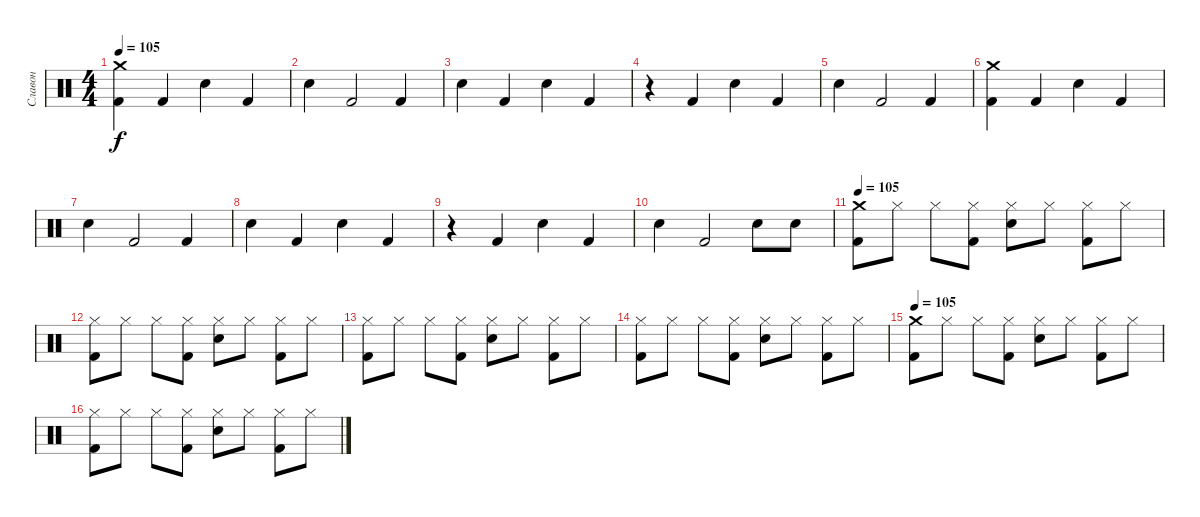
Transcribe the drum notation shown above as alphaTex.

\track ("Славон" "Славон") {instrument percussion}
\staff {score}
\articulation defaults
\ts (4 4)
\tempo 105
\tempo 132
\tempo 105
\clef neutral
\ks c
("Crash medium (hit)" "Kick (hit) 2").4{dy f} "Kick (hit) 2".4 "Snare (hit) 2".4 "Kick (hit) 2".4 |
"Snare (hit) 2".4 "Kick (hit) 2".2 "Kick (hit) 2".4 |
"Snare (hit) 2".4 "Kick (hit) 2".4 "Snare (hit) 2".4 "Kick (hit) 2".4 |
r.4 "Kick (hit) 2".4 "Snare (hit) 2".4 "Kick (hit) 2".4 |
"Snare (hit) 2".4 "Kick (hit) 2".2 "Kick (hit) 2".4 |
("Crash medium (hit)" "Kick (hit) 2").4 "Kick (hit) 2".4 "Snare (hit) 2".4 "Kick (hit) 2".4 |
"Snare (hit) 2".4 "Kick (hit) 2".2 "Kick (hit) 2".4 |
"Snare (hit) 2".4 "Kick (hit) 2".4 "Snare (hit) 2".4 "Kick (hit) 2".4 |
r.4 "Kick (hit) 2".4 "Snare (hit) 2".4 "Kick (hit) 2".4 |
"Snare (hit) 2".4 "Kick (hit) 2".2 "Snare (hit) 2".8 "Snare (hit) 2".8 |
\tempo 105
("Crash medium (hit)" "Kick (hit) 2").8 "Hi-Hat (closed)".8 "Hi-Hat (closed)".8 ("Hi-Hat (closed)" "Kick (hit) 2").8 ("Hi-Hat (closed)" "Snare (hit) 2").8 "Hi-Hat (closed)".8 ("Hi-Hat (closed)" "Kick (hit) 2").8 "Hi-Hat (closed)".8 |
("Hi-Hat (closed)" "Kick (hit) 2").8 "Hi-Hat (closed)".8 "Hi-Hat (closed)".8 ("Hi-Hat (closed)" "Kick (hit) 2").8 ("Hi-Hat (closed)" "Snare (hit) 2").8 "Hi-Hat (closed)".8 ("Hi-Hat (closed)" "Kick (hit) 2").8 "Hi-Hat (closed)".8 |
("Hi-Hat (closed)" "Kick (hit) 2").8 "Hi-Hat (closed)".8 "Hi-Hat (closed)".8 ("Hi-Hat (closed)" "Kick (hit) 2").8 ("Hi-Hat (closed)" "Snare (hit) 2").8 "Hi-Hat (closed)".8 ("Hi-Hat (closed)" "Kick (hit) 2").8 "Hi-Hat (closed)".8 |
("Hi-Hat (closed)" "Kick (hit) 2").8 "Hi-Hat (closed)".8 "Hi-Hat (closed)".8 ("Hi-Hat (closed)" "Kick (hit) 2").8 ("Hi-Hat (closed)" "Snare (hit) 2").8 "Hi-Hat (closed)".8 ("Hi-Hat (closed)" "Kick (hit) 2").8 "Hi-Hat (closed)".8 |
\tempo 105
("Crash medium (hit)" "Kick (hit) 2").8 "Hi-Hat (closed)".8 "Hi-Hat (closed)".8 ("Hi-Hat (closed)" "Kick (hit) 2").8 ("Hi-Hat (closed)" "Snare (hit) 2").8 "Hi-Hat (closed)".8 ("Hi-Hat (closed)" "Kick (hit) 2").8 "Hi-Hat (closed)".8 |
("Hi-Hat (closed)" "Kick (hit) 2").8 "Hi-Hat (closed)".8 "Hi-Hat (closed)".8 ("Hi-Hat (closed)" "Kick (hit) 2").8 ("Hi-Hat (closed)" "Snare (hit) 2").8 "Hi-Hat (closed)".8 ("Hi-Hat (closed)" "Kick (hit) 2").8 "Hi-Hat (closed)".8
